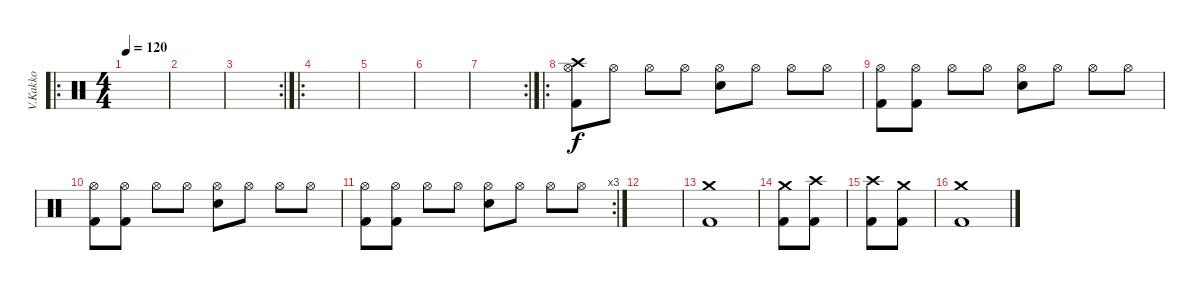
\track ("V.Kakko" "V.Kakko") {instrument percussion}
\staff {score}
\articulation defaults
\ro
\ts (4 4)
\tempo 120
\clef neutral
\ks c
|
|
\rc 2
|
\ro
|
|
|
\rc 2
|
\ro
("Crash high (hit)" "Hi-Hat (open)" "Kick (hit) 2").8 "Hi-Hat (open)".8 "Hi-Hat (open)".8 "Hi-Hat (open)".8 ("Hi-Hat (open)" "Snare (hit) 2").8 "Hi-Hat (open)".8 "Hi-Hat (open)".8 "Hi-Hat (open)".8 |
("Hi-Hat (open)" "Kick (hit) 2").8 ("Hi-Hat (open)" "Kick (hit) 2").8 "Hi-Hat (open)".8 "Hi-Hat (open)".8 ("Hi-Hat (open)" "Snare (hit) 2").8 "Hi-Hat (open)".8 "Hi-Hat (open)".8 "Hi-Hat (open)".8 |
("Hi-Hat (open)" "Kick (hit) 2").8 ("Hi-Hat (open)" "Kick (hit) 2").8 "Hi-Hat (open)".8 "Hi-Hat (open)".8 ("Hi-Hat (open)" "Snare (hit) 2").8 "Hi-Hat (open)".8 "Hi-Hat (open)".8 "Hi-Hat (open)".8 |
\rc 3
("Hi-Hat (open)" "Kick (hit) 2").8 ("Hi-Hat (open)" "Kick (hit) 2").8 "Hi-Hat (open)".8 "Hi-Hat (open)".8 ("Hi-Hat (open)" "Snare (hit) 2").8 "Hi-Hat (open)".8 "Hi-Hat (open)".8 "Hi-Hat (open)".8 |
|
("Crash medium (hit)" "Kick (hit) 2").1 |
("Crash medium (hit)" "Kick (hit) 2").8 ("Crash high (hit)" "Kick (hit) 2").8 |
("Crash high (hit)" "Kick (hit) 2").8 ("Crash medium (hit)" "Kick (hit) 2").8 |
("Crash medium (hit)" "Kick (hit) 2").1
